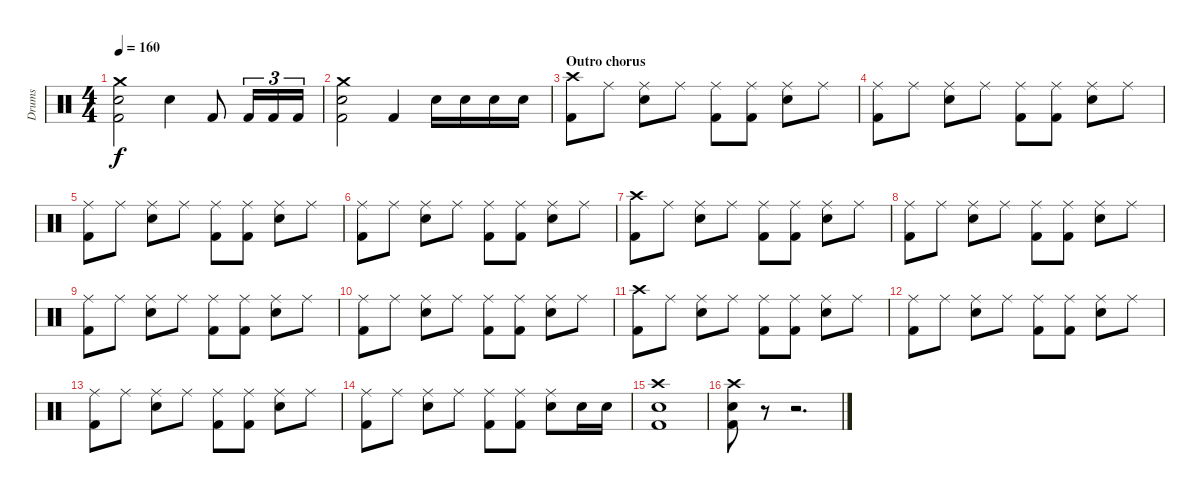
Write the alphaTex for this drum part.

\track ("Drums" "Drums") {instrument percussion}
\staff {score}
\articulation defaults
\ts (4 4)
\tempo 160
\clef neutral
\ks c
("Crash medium (hit)" "Kick (hit) 2" "Electric Snare (hit)").2{dy f} "Electric Snare (hit)".4 "Kick (hit) 2".8 "Kick (hit) 2".16{tu (3 2)} "Kick (hit) 2".16{tu (3 2)} "Kick (hit) 2".16{tu (3 2)} |
("Crash medium (hit)" "Kick (hit) 2" "Electric Snare (hit)").2 "Kick (hit) 2".4 "Electric Snare (hit)".16 "Electric Snare (hit)".16 "Electric Snare (hit)".16 "Electric Snare (hit)".16 |
\section ("" "Outro chorus")
("Crash high (hit)" "Kick (hit) 2").8 "Ride (middle)".8 ("Ride (middle)" "Electric Snare (hit)").8 "Ride (middle)".8 ("Ride (middle)" "Kick (hit) 2").8 ("Ride (middle)" "Kick (hit) 2").8 ("Ride (middle)" "Electric Snare (hit)").8 "Ride (middle)".8 |
("Ride (middle)" "Kick (hit) 2").8 "Ride (middle)".8 ("Ride (middle)" "Electric Snare (hit)").8 "Ride (middle)".8 ("Ride (middle)" "Kick (hit) 2").8 ("Ride (middle)" "Kick (hit) 2").8 ("Ride (middle)" "Electric Snare (hit)").8 "Ride (middle)".8 |
("Ride (middle)" "Kick (hit) 2").8 "Ride (middle)".8 ("Ride (middle)" "Electric Snare (hit)").8 "Ride (middle)".8 ("Ride (middle)" "Kick (hit) 2").8 ("Ride (middle)" "Kick (hit) 2").8 ("Ride (middle)" "Electric Snare (hit)").8 "Ride (middle)".8 |
("Ride (middle)" "Kick (hit) 2").8 "Ride (middle)".8 ("Ride (middle)" "Electric Snare (hit)").8 "Ride (middle)".8 ("Ride (middle)" "Kick (hit) 2").8 ("Ride (middle)" "Kick (hit) 2").8 ("Ride (middle)" "Electric Snare (hit)").8 "Ride (middle)".8 |
("Crash high (hit)" "Kick (hit) 2").8 "Ride (middle)".8 ("Ride (middle)" "Electric Snare (hit)").8 "Ride (middle)".8 ("Ride (middle)" "Kick (hit) 2").8 ("Ride (middle)" "Kick (hit) 2").8 ("Ride (middle)" "Electric Snare (hit)").8 "Ride (middle)".8 |
("Ride (middle)" "Kick (hit) 2").8 "Ride (middle)".8 ("Ride (middle)" "Electric Snare (hit)").8 "Ride (middle)".8 ("Ride (middle)" "Kick (hit) 2").8 ("Ride (middle)" "Kick (hit) 2").8 ("Ride (middle)" "Electric Snare (hit)").8 "Ride (middle)".8 |
("Ride (middle)" "Kick (hit) 2").8 "Ride (middle)".8 ("Ride (middle)" "Electric Snare (hit)").8 "Ride (middle)".8 ("Ride (middle)" "Kick (hit) 2").8 ("Ride (middle)" "Kick (hit) 2").8 ("Ride (middle)" "Electric Snare (hit)").8 "Ride (middle)".8 |
("Ride (middle)" "Kick (hit) 2").8 "Ride (middle)".8 ("Ride (middle)" "Electric Snare (hit)").8 "Ride (middle)".8 ("Ride (middle)" "Kick (hit) 2").8 ("Ride (middle)" "Kick (hit) 2").8 ("Ride (middle)" "Electric Snare (hit)").8 "Ride (middle)".8 |
("Crash high (hit)" "Kick (hit) 2").8 "Ride (middle)".8 ("Ride (middle)" "Electric Snare (hit)").8 "Ride (middle)".8 ("Ride (middle)" "Kick (hit) 2").8 ("Ride (middle)" "Kick (hit) 2").8 ("Ride (middle)" "Electric Snare (hit)").8 "Ride (middle)".8 |
("Ride (middle)" "Kick (hit) 2").8 "Ride (middle)".8 ("Ride (middle)" "Electric Snare (hit)").8 "Ride (middle)".8 ("Ride (middle)" "Kick (hit) 2").8 ("Ride (middle)" "Kick (hit) 2").8 ("Ride (middle)" "Electric Snare (hit)").8 "Ride (middle)".8 |
("Ride (middle)" "Kick (hit) 2").8 "Ride (middle)".8 ("Ride (middle)" "Electric Snare (hit)").8 "Ride (middle)".8 ("Ride (middle)" "Kick (hit) 2").8 ("Ride (middle)" "Kick (hit) 2").8 ("Ride (middle)" "Electric Snare (hit)").8 "Ride (middle)".8 |
("Ride (middle)" "Kick (hit) 2").8 "Ride (middle)".8 ("Ride (middle)" "Electric Snare (hit)").8 "Ride (middle)".8 ("Ride (middle)" "Kick (hit) 2").8 ("Ride (middle)" "Kick (hit) 2").8 ("Ride (middle)" "Electric Snare (hit)").8 "Electric Snare (hit)".16 "Electric Snare (hit)".16 |
("Crash high (hit)" "Electric Snare (hit)" "Kick (hit) 2").1 |
("Crash high (hit)" "Electric Snare (hit)" "Kick (hit) 2").8 r.8 r.2{d}
